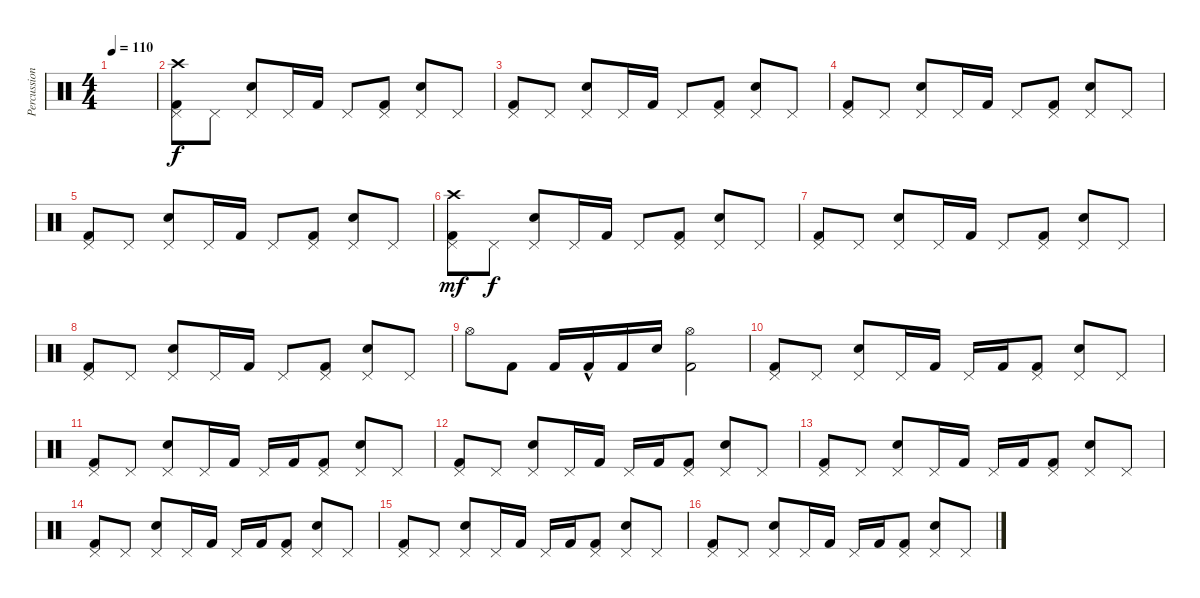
\track ("Percussion" "Percussion") {instrument percussion}
\staff {score}
\articulation defaults
\ts (4 4)
\tempo 110
\clef neutral
\ks c
|
("Pedal Hi-Hat (hit)" "Kick (hit) 2" "Crash high (hit)").8 "Pedal Hi-Hat (hit)".8{dy f} ("Pedal Hi-Hat (hit)" "Electric Snare (hit)").8 "Pedal Hi-Hat (hit)".16 "Kick (hit) 2".16 "Pedal Hi-Hat (hit)".8 ("Pedal Hi-Hat (hit)" "Kick (hit) 2").8 ("Pedal Hi-Hat (hit)" "Electric Snare (hit)").8 "Pedal Hi-Hat (hit)".8 |
("Pedal Hi-Hat (hit)" "Kick (hit) 2").8 "Pedal Hi-Hat (hit)".8 ("Pedal Hi-Hat (hit)" "Electric Snare (hit)").8 "Pedal Hi-Hat (hit)".16 "Kick (hit) 2".16 "Pedal Hi-Hat (hit)".8 ("Pedal Hi-Hat (hit)" "Kick (hit) 2").8 ("Pedal Hi-Hat (hit)" "Electric Snare (hit)").8 "Pedal Hi-Hat (hit)".8 |
("Pedal Hi-Hat (hit)" "Kick (hit) 2").8 "Pedal Hi-Hat (hit)".8 ("Pedal Hi-Hat (hit)" "Electric Snare (hit)").8 "Pedal Hi-Hat (hit)".16 "Kick (hit) 2".16 "Pedal Hi-Hat (hit)".8 ("Pedal Hi-Hat (hit)" "Kick (hit) 2").8 ("Pedal Hi-Hat (hit)" "Electric Snare (hit)").8 "Pedal Hi-Hat (hit)".8 |
("Pedal Hi-Hat (hit)" "Kick (hit) 2").8 "Pedal Hi-Hat (hit)".8 ("Pedal Hi-Hat (hit)" "Electric Snare (hit)").8 "Pedal Hi-Hat (hit)".16 "Kick (hit) 2".16 "Pedal Hi-Hat (hit)".8 ("Pedal Hi-Hat (hit)" "Kick (hit) 2").8 ("Pedal Hi-Hat (hit)" "Electric Snare (hit)").8 "Pedal Hi-Hat (hit)".8 |
("Pedal Hi-Hat (hit)" "Kick (hit) 2" "Crash high (hit)").8{dy mf} "Pedal Hi-Hat (hit)".8{dy f} ("Pedal Hi-Hat (hit)" "Electric Snare (hit)").8 "Pedal Hi-Hat (hit)".16 "Kick (hit) 2".16 "Pedal Hi-Hat (hit)".8 ("Pedal Hi-Hat (hit)" "Kick (hit) 2").8 ("Pedal Hi-Hat (hit)" "Electric Snare (hit)").8 "Pedal Hi-Hat (hit)".8 |
("Pedal Hi-Hat (hit)" "Kick (hit) 2").8 "Pedal Hi-Hat (hit)".8 ("Pedal Hi-Hat (hit)" "Electric Snare (hit)").8 "Pedal Hi-Hat (hit)".16 "Kick (hit) 2".16 "Pedal Hi-Hat (hit)".8 ("Pedal Hi-Hat (hit)" "Kick (hit) 2").8 ("Pedal Hi-Hat (hit)" "Electric Snare (hit)").8 "Pedal Hi-Hat (hit)".8 |
("Pedal Hi-Hat (hit)" "Kick (hit) 2").8 "Pedal Hi-Hat (hit)".8 ("Pedal Hi-Hat (hit)" "Electric Snare (hit)").8 "Pedal Hi-Hat (hit)".16 "Kick (hit) 2".16 "Pedal Hi-Hat (hit)".8 ("Pedal Hi-Hat (hit)" "Kick (hit) 2").8 ("Pedal Hi-Hat (hit)" "Electric Snare (hit)").8 "Pedal Hi-Hat (hit)".8 |
"Hi-Hat (open)".8 "Kick (hit) 2".8 "Kick (hit) 2".16 "Kick (hit) 2"{hac}.16 "Kick (hit) 2".16 "Electric Snare (hit)".16 ("Hi-Hat (open)" "Kick (hit) 2").2 |
("Pedal Hi-Hat (hit)" "Kick (hit) 2").8 "Pedal Hi-Hat (hit)".8 ("Pedal Hi-Hat (hit)" "Electric Snare (hit)").8 "Pedal Hi-Hat (hit)".16 "Kick (hit) 2".16 "Pedal Hi-Hat (hit)".16 "Kick (hit) 2".16 ("Pedal Hi-Hat (hit)" "Kick (hit) 2").8 ("Pedal Hi-Hat (hit)" "Electric Snare (hit)").8 "Pedal Hi-Hat (hit)".8 |
("Pedal Hi-Hat (hit)" "Kick (hit) 2").8 "Pedal Hi-Hat (hit)".8 ("Pedal Hi-Hat (hit)" "Electric Snare (hit)").8 "Pedal Hi-Hat (hit)".16 "Kick (hit) 2".16 "Pedal Hi-Hat (hit)".16 "Kick (hit) 2".16 ("Pedal Hi-Hat (hit)" "Kick (hit) 2").8 ("Pedal Hi-Hat (hit)" "Electric Snare (hit)").8 "Pedal Hi-Hat (hit)".8 |
("Pedal Hi-Hat (hit)" "Kick (hit) 2").8 "Pedal Hi-Hat (hit)".8 ("Pedal Hi-Hat (hit)" "Electric Snare (hit)").8 "Pedal Hi-Hat (hit)".16 "Kick (hit) 2".16 "Pedal Hi-Hat (hit)".16 "Kick (hit) 2".16 ("Pedal Hi-Hat (hit)" "Kick (hit) 2").8 ("Pedal Hi-Hat (hit)" "Electric Snare (hit)").8 "Pedal Hi-Hat (hit)".8 |
("Pedal Hi-Hat (hit)" "Kick (hit) 2").8 "Pedal Hi-Hat (hit)".8 ("Pedal Hi-Hat (hit)" "Electric Snare (hit)").8 "Pedal Hi-Hat (hit)".16 "Kick (hit) 2".16 "Pedal Hi-Hat (hit)".16 "Kick (hit) 2".16 ("Pedal Hi-Hat (hit)" "Kick (hit) 2").8 ("Pedal Hi-Hat (hit)" "Electric Snare (hit)").8 "Pedal Hi-Hat (hit)".8 |
("Pedal Hi-Hat (hit)" "Kick (hit) 2").8 "Pedal Hi-Hat (hit)".8 ("Pedal Hi-Hat (hit)" "Electric Snare (hit)").8 "Pedal Hi-Hat (hit)".16 "Kick (hit) 2".16 "Pedal Hi-Hat (hit)".16 "Kick (hit) 2".16 ("Pedal Hi-Hat (hit)" "Kick (hit) 2").8 ("Pedal Hi-Hat (hit)" "Electric Snare (hit)").8 "Pedal Hi-Hat (hit)".8 |
("Pedal Hi-Hat (hit)" "Kick (hit) 2").8 "Pedal Hi-Hat (hit)".8 ("Pedal Hi-Hat (hit)" "Electric Snare (hit)").8 "Pedal Hi-Hat (hit)".16 "Kick (hit) 2".16 "Pedal Hi-Hat (hit)".16 "Kick (hit) 2".16 ("Pedal Hi-Hat (hit)" "Kick (hit) 2").8 ("Pedal Hi-Hat (hit)" "Electric Snare (hit)").8 "Pedal Hi-Hat (hit)".8 |
("Pedal Hi-Hat (hit)" "Kick (hit) 2").8 "Pedal Hi-Hat (hit)".8 ("Pedal Hi-Hat (hit)" "Electric Snare (hit)").8 "Pedal Hi-Hat (hit)".16 "Kick (hit) 2".16 "Pedal Hi-Hat (hit)".16 "Kick (hit) 2".16 ("Pedal Hi-Hat (hit)" "Kick (hit) 2").8 ("Pedal Hi-Hat (hit)" "Electric Snare (hit)").8 "Pedal Hi-Hat (hit)".8
